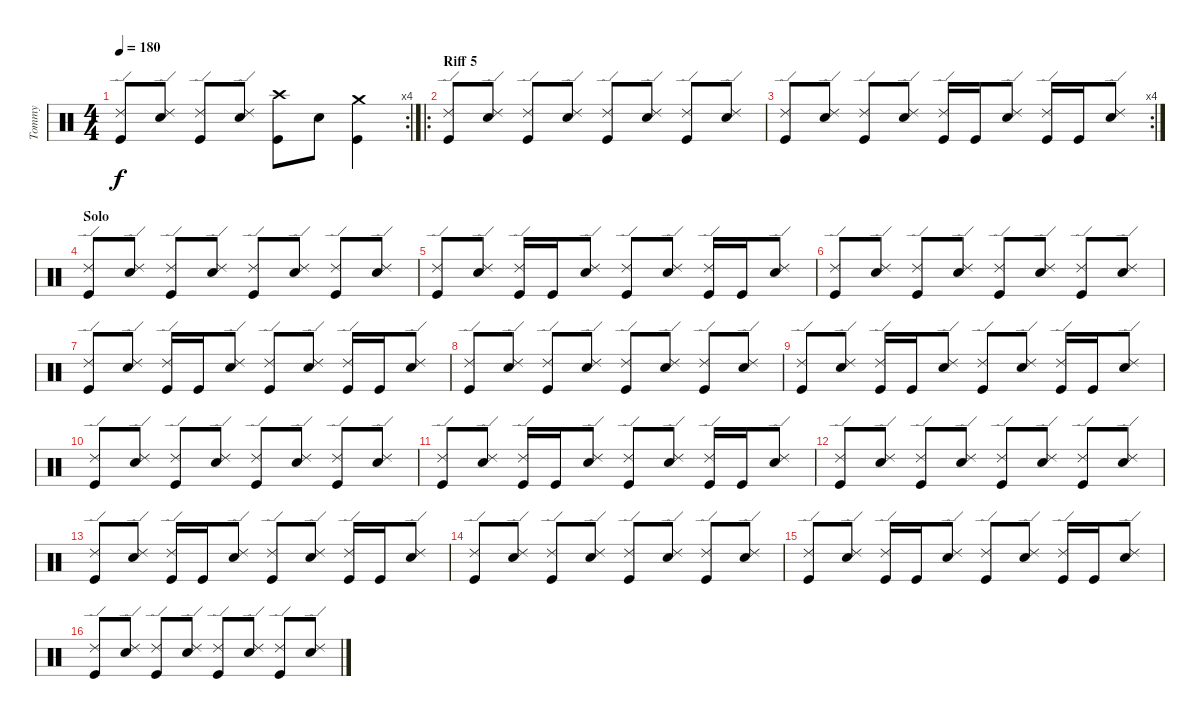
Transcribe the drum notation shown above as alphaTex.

\track ("Tommy" "Tommy") {instrument percussion}
\staff {score}
\articulation defaults
\rc 4
\ts (4 4)
\tempo 180
\clef neutral
\ks c
("Ride (edge) 2" "Kick (hit)").8{dy f} ("Ride (edge) 2" "Electric Snare (hit)").8 ("Ride (edge) 2" "Kick (hit)").8 ("Ride (edge) 2" "Electric Snare (hit)").8 ("Crash high (hit)" "Kick (hit)").8 "Electric Snare (hit)".8 ("Crash medium (hit)" "Kick (hit)").4 |
\ro
\section ("" "Riff 5")
("Ride (edge) 2" "Kick (hit)").8 ("Ride (edge) 2" "Electric Snare (hit)").8 ("Ride (edge) 2" "Kick (hit)").8 ("Ride (edge) 2" "Electric Snare (hit)").8 ("Ride (edge) 2" "Kick (hit)").8 ("Ride (edge) 2" "Electric Snare (hit)").8 ("Ride (edge) 2" "Kick (hit)").8 ("Ride (edge) 2" "Electric Snare (hit)").8 |
\rc 4
("Ride (edge) 2" "Kick (hit)").8 ("Ride (edge) 2" "Electric Snare (hit)").8 ("Ride (edge) 2" "Kick (hit)").8 ("Ride (edge) 2" "Electric Snare (hit)").8 ("Ride (edge) 2" "Kick (hit)").16 "Kick (hit)".16 ("Ride (edge) 2" "Electric Snare (hit)").8 ("Ride (edge) 2" "Kick (hit)").16 "Kick (hit)".16 ("Ride (edge) 2" "Electric Snare (hit)").8 |
\section ("" "Solo")
("Ride (edge) 2" "Kick (hit)").8 ("Ride (edge) 2" "Electric Snare (hit)").8 ("Ride (edge) 2" "Kick (hit)").8 ("Ride (edge) 2" "Electric Snare (hit)").8 ("Ride (edge) 2" "Kick (hit)").8 ("Ride (edge) 2" "Electric Snare (hit)").8 ("Ride (edge) 2" "Kick (hit)").8 ("Ride (edge) 2" "Electric Snare (hit)").8 |
("Ride (edge) 2" "Kick (hit)").8 ("Ride (edge) 2" "Electric Snare (hit)").8 ("Ride (edge) 2" "Kick (hit)").16 "Kick (hit)".16 ("Ride (edge) 2" "Electric Snare (hit)").8 ("Ride (edge) 2" "Kick (hit)").8 ("Ride (edge) 2" "Electric Snare (hit)").8 ("Ride (edge) 2" "Kick (hit)").16 "Kick (hit)".16 ("Ride (edge) 2" "Electric Snare (hit)").8 |
("Ride (edge) 2" "Kick (hit)").8 ("Ride (edge) 2" "Electric Snare (hit)").8 ("Ride (edge) 2" "Kick (hit)").8 ("Ride (edge) 2" "Electric Snare (hit)").8 ("Ride (edge) 2" "Kick (hit)").8 ("Ride (edge) 2" "Electric Snare (hit)").8 ("Ride (edge) 2" "Kick (hit)").8 ("Ride (edge) 2" "Electric Snare (hit)").8 |
("Ride (edge) 2" "Kick (hit)").8 ("Ride (edge) 2" "Electric Snare (hit)").8 ("Ride (edge) 2" "Kick (hit)").16 "Kick (hit)".16 ("Ride (edge) 2" "Electric Snare (hit)").8 ("Ride (edge) 2" "Kick (hit)").8 ("Ride (edge) 2" "Electric Snare (hit)").8 ("Ride (edge) 2" "Kick (hit)").16 "Kick (hit)".16 ("Ride (edge) 2" "Electric Snare (hit)").8 |
("Ride (edge) 2" "Kick (hit)").8 ("Ride (edge) 2" "Electric Snare (hit)").8 ("Ride (edge) 2" "Kick (hit)").8 ("Ride (edge) 2" "Electric Snare (hit)").8 ("Ride (edge) 2" "Kick (hit)").8 ("Ride (edge) 2" "Electric Snare (hit)").8 ("Ride (edge) 2" "Kick (hit)").8 ("Ride (edge) 2" "Electric Snare (hit)").8 |
("Ride (edge) 2" "Kick (hit)").8 ("Ride (edge) 2" "Electric Snare (hit)").8 ("Ride (edge) 2" "Kick (hit)").16 "Kick (hit)".16 ("Ride (edge) 2" "Electric Snare (hit)").8 ("Ride (edge) 2" "Kick (hit)").8 ("Ride (edge) 2" "Electric Snare (hit)").8 ("Ride (edge) 2" "Kick (hit)").16 "Kick (hit)".16 ("Ride (edge) 2" "Electric Snare (hit)").8 |
("Ride (edge) 2" "Kick (hit)").8 ("Ride (edge) 2" "Electric Snare (hit)").8 ("Ride (edge) 2" "Kick (hit)").8 ("Ride (edge) 2" "Electric Snare (hit)").8 ("Ride (edge) 2" "Kick (hit)").8 ("Ride (edge) 2" "Electric Snare (hit)").8 ("Ride (edge) 2" "Kick (hit)").8 ("Ride (edge) 2" "Electric Snare (hit)").8 |
("Ride (edge) 2" "Kick (hit)").8 ("Ride (edge) 2" "Electric Snare (hit)").8 ("Ride (edge) 2" "Kick (hit)").16 "Kick (hit)".16 ("Ride (edge) 2" "Electric Snare (hit)").8 ("Ride (edge) 2" "Kick (hit)").8 ("Ride (edge) 2" "Electric Snare (hit)").8 ("Ride (edge) 2" "Kick (hit)").16 "Kick (hit)".16 ("Ride (edge) 2" "Electric Snare (hit)").8 |
("Ride (edge) 2" "Kick (hit)").8 ("Ride (edge) 2" "Electric Snare (hit)").8 ("Ride (edge) 2" "Kick (hit)").8 ("Ride (edge) 2" "Electric Snare (hit)").8 ("Ride (edge) 2" "Kick (hit)").8 ("Ride (edge) 2" "Electric Snare (hit)").8 ("Ride (edge) 2" "Kick (hit)").8 ("Ride (edge) 2" "Electric Snare (hit)").8 |
("Ride (edge) 2" "Kick (hit)").8 ("Ride (edge) 2" "Electric Snare (hit)").8 ("Ride (edge) 2" "Kick (hit)").16 "Kick (hit)".16 ("Ride (edge) 2" "Electric Snare (hit)").8 ("Ride (edge) 2" "Kick (hit)").8 ("Ride (edge) 2" "Electric Snare (hit)").8 ("Ride (edge) 2" "Kick (hit)").16 "Kick (hit)".16 ("Ride (edge) 2" "Electric Snare (hit)").8 |
("Ride (edge) 2" "Kick (hit)").8 ("Ride (edge) 2" "Electric Snare (hit)").8 ("Ride (edge) 2" "Kick (hit)").8 ("Ride (edge) 2" "Electric Snare (hit)").8 ("Ride (edge) 2" "Kick (hit)").8 ("Ride (edge) 2" "Electric Snare (hit)").8 ("Ride (edge) 2" "Kick (hit)").8 ("Ride (edge) 2" "Electric Snare (hit)").8 |
("Ride (edge) 2" "Kick (hit)").8 ("Ride (edge) 2" "Electric Snare (hit)").8 ("Ride (edge) 2" "Kick (hit)").16 "Kick (hit)".16 ("Ride (edge) 2" "Electric Snare (hit)").8 ("Ride (edge) 2" "Kick (hit)").8 ("Ride (edge) 2" "Electric Snare (hit)").8 ("Ride (edge) 2" "Kick (hit)").16 "Kick (hit)".16 ("Ride (edge) 2" "Electric Snare (hit)").8 |
("Ride (edge) 2" "Kick (hit)").8 ("Ride (edge) 2" "Electric Snare (hit)").8 ("Ride (edge) 2" "Kick (hit)").8 ("Ride (edge) 2" "Electric Snare (hit)").8 ("Ride (edge) 2" "Kick (hit)").8 ("Ride (edge) 2" "Electric Snare (hit)").8 ("Ride (edge) 2" "Kick (hit)").8 ("Ride (edge) 2" "Electric Snare (hit)").8
